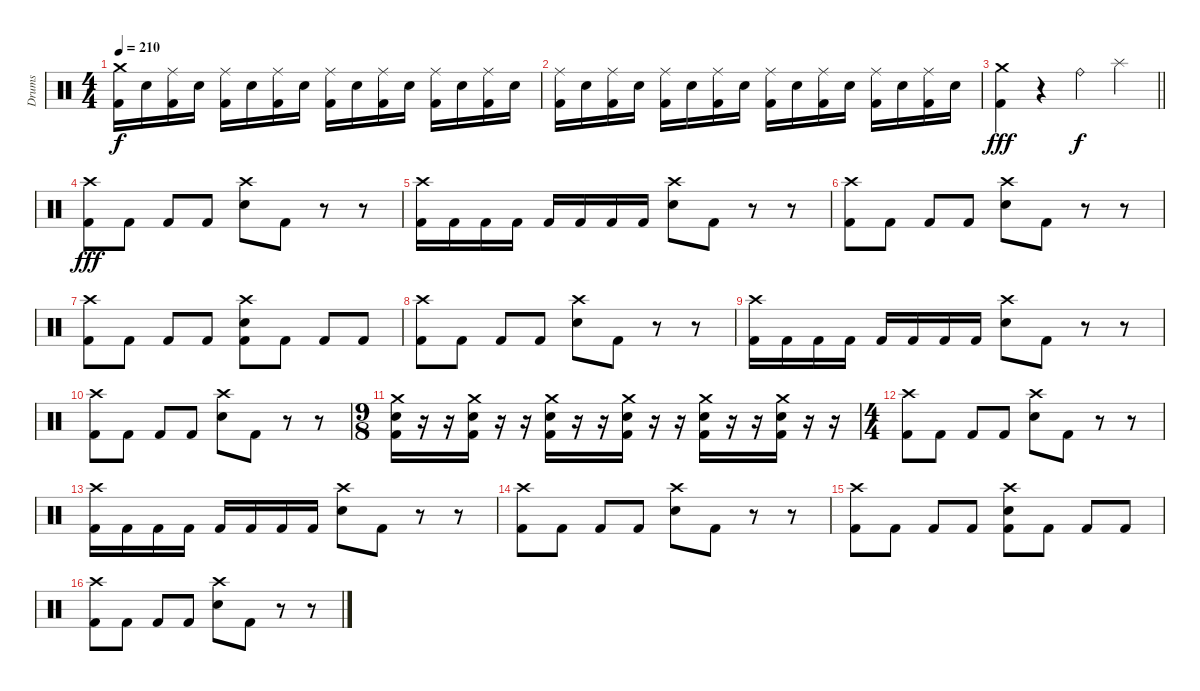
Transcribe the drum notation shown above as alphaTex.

\track ("Drums" "Drums") {instrument percussion}
\staff {score}
\articulation defaults
\ts (4 4)
\tempo 210
\clef neutral
\ks c
("Crash medium (hit)" "Kick (hit) 2").16{dy f} "Electric Snare (hit)".16 ("Ride (middle)" "Kick (hit) 2").16 "Electric Snare (hit)".16 ("Ride (middle)" "Kick (hit) 2").16 "Electric Snare (hit)".16 ("Ride (middle)" "Kick (hit) 2").16 "Electric Snare (hit)".16 ("Ride (middle)" "Kick (hit) 2").16 "Electric Snare (hit)".16 ("Ride (middle)" "Kick (hit) 2").16 "Electric Snare (hit)".16 ("Ride (middle)" "Kick (hit) 2").16 "Electric Snare (hit)".16 ("Ride (middle)" "Kick (hit) 2").16 "Electric Snare (hit)".16 |
("Ride (middle)" "Kick (hit) 2").16 "Electric Snare (hit)".16 ("Ride (middle)" "Kick (hit) 2").16 "Electric Snare (hit)".16 ("Ride (middle)" "Kick (hit) 2").16 "Electric Snare (hit)".16 ("Ride (middle)" "Kick (hit) 2").16 "Electric Snare (hit)".16 ("Ride (middle)" "Kick (hit) 2").16 "Electric Snare (hit)".16 ("Ride (middle)" "Kick (hit) 2").16 "Electric Snare (hit)".16 ("Ride (middle)" "Kick (hit) 2").16 "Electric Snare (hit)".16 ("Ride (middle)" "Kick (hit) 2").16 "Electric Snare (hit)".16 |
\barLineRight lightlight
("Crash medium (hit)" "Kick (hit) 2").4{dy fff} r.4 "Ride (bell)".4{dy f} "Splash (hit)".4 |
("Crash high (hit)" "Kick (hit) 2").8{dy fff} "Kick (hit) 2".8 "Kick (hit) 2".8 "Kick (hit) 2".8 ("Crash high (hit)" "Electric Snare (hit)").8 "Kick (hit) 2".8 r.8 r.8 |
("Crash high (hit)" "Kick (hit) 2").16 "Kick (hit) 2".16 "Kick (hit) 2".16 "Kick (hit) 2".16 "Kick (hit) 2".16 "Kick (hit) 2".16 "Kick (hit) 2".16 "Kick (hit) 2".16 ("Crash high (hit)" "Electric Snare (hit)").8 "Kick (hit) 2".8 r.8 r.8 |
("Crash high (hit)" "Kick (hit) 2").8 "Kick (hit) 2".8 "Kick (hit) 2".8 "Kick (hit) 2".8 ("Crash high (hit)" "Electric Snare (hit)").8 "Kick (hit) 2".8 r.8 r.8 |
("Crash high (hit)" "Kick (hit) 2").8 "Kick (hit) 2".8 "Kick (hit) 2".8 "Kick (hit) 2".8 ("Crash high (hit)" "Electric Snare (hit)" "Kick (hit) 2").8 "Kick (hit) 2".8 "Kick (hit) 2".8 "Kick (hit) 2".8 |
("Crash high (hit)" "Kick (hit) 2").8 "Kick (hit) 2".8 "Kick (hit) 2".8 "Kick (hit) 2".8 ("Crash high (hit)" "Electric Snare (hit)").8 "Kick (hit) 2".8 r.8 r.8 |
("Crash high (hit)" "Kick (hit) 2").16 "Kick (hit) 2".16 "Kick (hit) 2".16 "Kick (hit) 2".16 "Kick (hit) 2".16 "Kick (hit) 2".16 "Kick (hit) 2".16 "Kick (hit) 2".16 ("Crash high (hit)" "Electric Snare (hit)").8 "Kick (hit) 2".8 r.8 r.8 |
("Crash high (hit)" "Kick (hit) 2").8 "Kick (hit) 2".8 "Kick (hit) 2".8 "Kick (hit) 2".8 ("Crash high (hit)" "Electric Snare (hit)").8 "Kick (hit) 2".8 r.8 r.8 |
\ts (9 8)
("Crash medium (hit)" "Electric Snare (hit)" "Kick (hit) 2").16 r.16 r.16 ("Crash medium (hit)" "Electric Snare (hit)" "Kick (hit) 2").16 r.16 r.16 ("Crash medium (hit)" "Electric Snare (hit)" "Kick (hit) 2").16 r.16 r.16 ("Crash medium (hit)" "Electric Snare (hit)" "Kick (hit) 2").16 r.16 r.16 ("Crash medium (hit)" "Electric Snare (hit)" "Kick (hit) 2").16 r.16 r.16 ("Crash medium (hit)" "Electric Snare (hit)" "Kick (hit) 2").16 r.16 r.16 |
\ts (4 4)
("Crash high (hit)" "Kick (hit) 2").8 "Kick (hit) 2".8 "Kick (hit) 2".8 "Kick (hit) 2".8 ("Crash high (hit)" "Electric Snare (hit)").8 "Kick (hit) 2".8 r.8 r.8 |
("Crash high (hit)" "Kick (hit) 2").16 "Kick (hit) 2".16 "Kick (hit) 2".16 "Kick (hit) 2".16 "Kick (hit) 2".16 "Kick (hit) 2".16 "Kick (hit) 2".16 "Kick (hit) 2".16 ("Crash high (hit)" "Electric Snare (hit)").8 "Kick (hit) 2".8 r.8 r.8 |
("Crash high (hit)" "Kick (hit) 2").8 "Kick (hit) 2".8 "Kick (hit) 2".8 "Kick (hit) 2".8 ("Crash high (hit)" "Electric Snare (hit)").8 "Kick (hit) 2".8 r.8 r.8 |
("Crash high (hit)" "Kick (hit) 2").8 "Kick (hit) 2".8 "Kick (hit) 2".8 "Kick (hit) 2".8 ("Crash high (hit)" "Electric Snare (hit)" "Kick (hit) 2").8 "Kick (hit) 2".8 "Kick (hit) 2".8 "Kick (hit) 2".8 |
("Crash high (hit)" "Kick (hit) 2").8 "Kick (hit) 2".8 "Kick (hit) 2".8 "Kick (hit) 2".8 ("Crash high (hit)" "Electric Snare (hit)").8 "Kick (hit) 2".8 r.8 r.8
